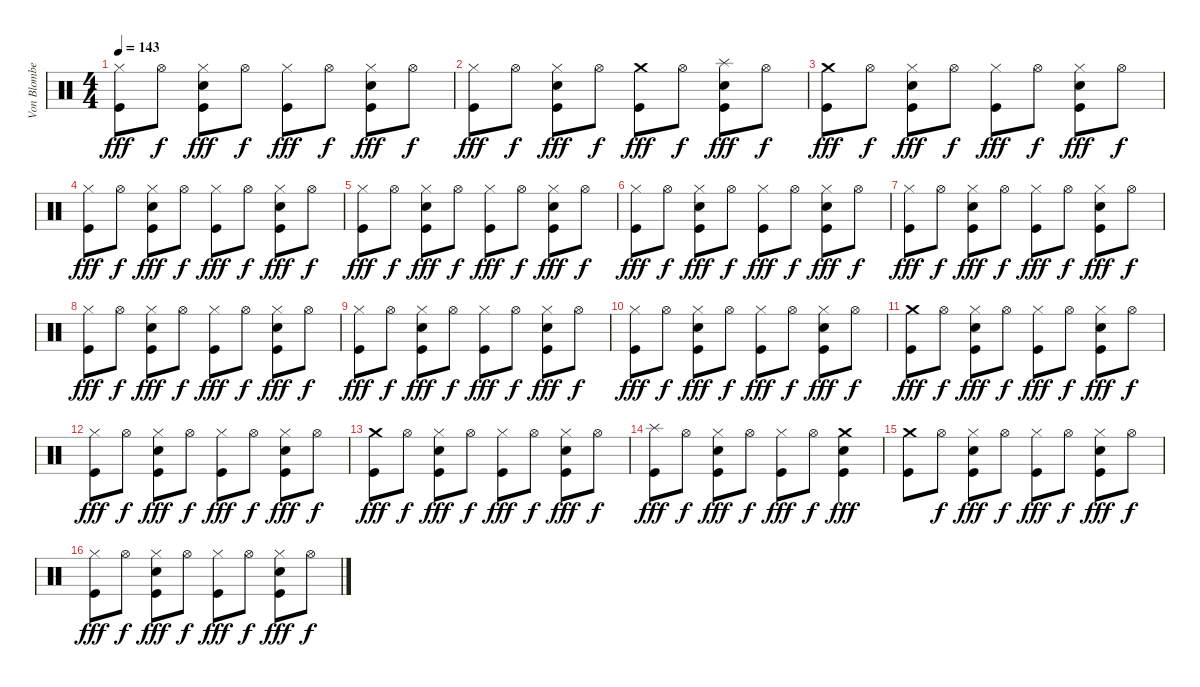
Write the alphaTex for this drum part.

\track ("Von Blomberg" "Von Blombe") {instrument percussion}
\staff {score}
\articulation defaults
\ts (4 4)
\tempo 143
\clef neutral
\ks c
("Hi-Hat (closed)" "Kick (hit)").8{dy fff} "Hi-Hat (open)".8{dy f} ("Hi-Hat (closed)" "Electric Snare (hit)" "Kick (hit)").8{dy fff} "Hi-Hat (open)".8{dy f} ("Hi-Hat (closed)" "Kick (hit)").8{dy fff} "Hi-Hat (open)".8{dy f} ("Hi-Hat (closed)" "Electric Snare (hit)" "Kick (hit)").8{dy fff} "Hi-Hat (open)".8{dy f} |
("Hi-Hat (closed)" "Kick (hit)").8{dy fff} "Hi-Hat (open)".8{dy f} ("Hi-Hat (closed)" "Electric Snare (hit)" "Kick (hit)").8{dy fff} "Hi-Hat (open)".8{dy f} ("Crash medium (hit)" "Kick (hit)").8{dy fff} "Hi-Hat (open)".8{dy f} ("Splash (hit)" "Electric Snare (hit)" "Kick (hit)").8{dy fff} "Hi-Hat (open)".8{dy f} |
("Crash medium (hit)" "Kick (hit)").8{dy fff} "Hi-Hat (open)".8{dy f} ("Hi-Hat (closed)" "Electric Snare (hit)" "Kick (hit)").8{dy fff} "Hi-Hat (open)".8{dy f} ("Hi-Hat (closed)" "Kick (hit)").8{dy fff} "Hi-Hat (open)".8{dy f} ("Hi-Hat (closed)" "Electric Snare (hit)" "Kick (hit)").8{dy fff} "Hi-Hat (open)".8{dy f} |
("Hi-Hat (closed)" "Kick (hit)").8{dy fff} "Hi-Hat (open)".8{dy f} ("Hi-Hat (closed)" "Electric Snare (hit)" "Kick (hit)").8{dy fff} "Hi-Hat (open)".8{dy f} ("Hi-Hat (closed)" "Kick (hit)").8{dy fff} "Hi-Hat (open)".8{dy f} ("Hi-Hat (closed)" "Electric Snare (hit)" "Kick (hit)").8{dy fff} "Hi-Hat (open)".8{dy f} |
("Hi-Hat (closed)" "Kick (hit)").8{dy fff} "Hi-Hat (open)".8{dy f} ("Hi-Hat (closed)" "Electric Snare (hit)" "Kick (hit)").8{dy fff} "Hi-Hat (open)".8{dy f} ("Hi-Hat (closed)" "Kick (hit)").8{dy fff} "Hi-Hat (open)".8{dy f} ("Hi-Hat (closed)" "Electric Snare (hit)" "Kick (hit)").8{dy fff} "Hi-Hat (open)".8{dy f} |
("Hi-Hat (closed)" "Kick (hit)").8{dy fff} "Hi-Hat (open)".8{dy f} ("Hi-Hat (closed)" "Electric Snare (hit)" "Kick (hit)").8{dy fff} "Hi-Hat (open)".8{dy f} ("Hi-Hat (closed)" "Kick (hit)").8{dy fff} "Hi-Hat (open)".8{dy f} ("Hi-Hat (closed)" "Electric Snare (hit)" "Kick (hit)").8{dy fff} "Hi-Hat (open)".8{dy f} |
("Hi-Hat (closed)" "Kick (hit)").8{dy fff} "Hi-Hat (open)".8{dy f} ("Hi-Hat (closed)" "Electric Snare (hit)" "Kick (hit)").8{dy fff} "Hi-Hat (open)".8{dy f} ("Hi-Hat (closed)" "Kick (hit)").8{dy fff} "Hi-Hat (open)".8{dy f} ("Hi-Hat (closed)" "Electric Snare (hit)" "Kick (hit)").8{dy fff} "Hi-Hat (open)".8{dy f} |
("Hi-Hat (closed)" "Kick (hit)").8{dy fff} "Hi-Hat (open)".8{dy f} ("Hi-Hat (closed)" "Electric Snare (hit)" "Kick (hit)").8{dy fff} "Hi-Hat (open)".8{dy f} ("Hi-Hat (closed)" "Kick (hit)").8{dy fff} "Hi-Hat (open)".8{dy f} ("Hi-Hat (closed)" "Electric Snare (hit)" "Kick (hit)").8{dy fff} "Hi-Hat (open)".8{dy f} |
("Hi-Hat (closed)" "Kick (hit)").8{dy fff} "Hi-Hat (open)".8{dy f} ("Hi-Hat (closed)" "Electric Snare (hit)" "Kick (hit)").8{dy fff} "Hi-Hat (open)".8{dy f} ("Hi-Hat (closed)" "Kick (hit)").8{dy fff} "Hi-Hat (open)".8{dy f} ("Hi-Hat (closed)" "Electric Snare (hit)" "Kick (hit)").8{dy fff} "Hi-Hat (open)".8{dy f} |
("Hi-Hat (closed)" "Kick (hit)").8{dy fff} "Hi-Hat (open)".8{dy f} ("Hi-Hat (closed)" "Electric Snare (hit)" "Kick (hit)").8{dy fff} "Hi-Hat (open)".8{dy f} ("Hi-Hat (closed)" "Kick (hit)").8{dy fff} "Hi-Hat (open)".8{dy f} ("Hi-Hat (closed)" "Electric Snare (hit)" "Kick (hit)").8{dy fff} "Hi-Hat (open)".8{dy f} |
("Crash medium (hit)" "Kick (hit)").8{dy fff} "Hi-Hat (open)".8{dy f} ("Hi-Hat (closed)" "Electric Snare (hit)" "Kick (hit)").8{dy fff} "Hi-Hat (open)".8{dy f} ("Hi-Hat (closed)" "Kick (hit)").8{dy fff} "Hi-Hat (open)".8{dy f} ("Hi-Hat (closed)" "Electric Snare (hit)" "Kick (hit)").8{dy fff} "Hi-Hat (open)".8{dy f} |
("Hi-Hat (closed)" "Kick (hit)").8{dy fff} "Hi-Hat (open)".8{dy f} ("Hi-Hat (closed)" "Electric Snare (hit)" "Kick (hit)").8{dy fff} "Hi-Hat (open)".8{dy f} ("Hi-Hat (closed)" "Kick (hit)").8{dy fff} "Hi-Hat (open)".8{dy f} ("Hi-Hat (closed)" "Electric Snare (hit)" "Kick (hit)").8{dy fff} "Hi-Hat (open)".8{dy f} |
("Crash medium (hit)" "Kick (hit)").8{dy fff} "Hi-Hat (open)".8{dy f} ("Hi-Hat (closed)" "Electric Snare (hit)" "Kick (hit)").8{dy fff} "Hi-Hat (open)".8{dy f} ("Hi-Hat (closed)" "Kick (hit)").8{dy fff} "Hi-Hat (open)".8{dy f} ("Hi-Hat (closed)" "Electric Snare (hit)" "Kick (hit)").8{dy fff} "Hi-Hat (open)".8{dy f} |
("Splash (hit)" "Kick (hit)").8{dy fff} "Hi-Hat (open)".8{dy f} ("Hi-Hat (closed)" "Electric Snare (hit)" "Kick (hit)").8{dy fff} "Hi-Hat (open)".8{dy f} ("Hi-Hat (closed)" "Kick (hit)").8{dy fff} "Hi-Hat (open)".8{dy f} ("Crash medium (hit)" "Electric Snare (hit)" "Kick (hit)").4{dy fff} |
("Crash medium (hit)" "Kick (hit)").8 "Hi-Hat (open)".8{dy f} ("Hi-Hat (closed)" "Electric Snare (hit)" "Kick (hit)").8{dy fff} "Hi-Hat (open)".8{dy f} ("Hi-Hat (closed)" "Kick (hit)").8{dy fff} "Hi-Hat (open)".8{dy f} ("Hi-Hat (closed)" "Electric Snare (hit)" "Kick (hit)").8{dy fff} "Hi-Hat (open)".8{dy f} |
("Hi-Hat (closed)" "Kick (hit)").8{dy fff} "Hi-Hat (open)".8{dy f} ("Hi-Hat (closed)" "Electric Snare (hit)" "Kick (hit)").8{dy fff} "Hi-Hat (open)".8{dy f} ("Hi-Hat (closed)" "Kick (hit)").8{dy fff} "Hi-Hat (open)".8{dy f} ("Hi-Hat (closed)" "Electric Snare (hit)" "Kick (hit)").8{dy fff} "Hi-Hat (open)".8{dy f}
